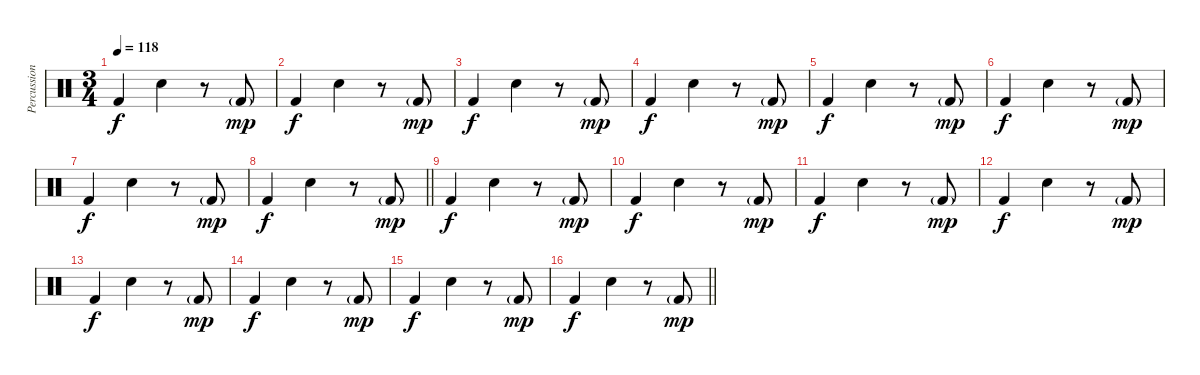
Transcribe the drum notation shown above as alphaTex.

\track ("Percussion" "Percussion") {instrument percussion}
\staff {score}
\articulation defaults
\ts (3 4)
\tempo 118
\clef neutral
\ks c "Kick (hit) 2".4{dy f} "Snare (hit) 2".4
r.8 "Kick (hit) 2"{g}.8{dy mp} |
"Kick (hit) 2".4{dy f} "Snare (hit) 2".4 r.8 "Kick (hit) 2"{g}.8{dy mp} |
"Kick (hit) 2".4{dy f} "Snare (hit) 2".4 r.8 "Kick (hit) 2"{g}.8{dy mp} |
"Kick (hit) 2".4{dy f} "Snare (hit) 2".4 r.8 "Kick (hit) 2"{g}.8{dy mp} |
"Kick (hit) 2".4{dy f} "Snare (hit) 2".4 r.8 "Kick (hit) 2"{g}.8{dy mp} |
"Kick (hit) 2".4{dy f} "Snare (hit) 2".4 r.8 "Kick (hit) 2"{g}.8{dy mp} |
"Kick (hit) 2".4{dy f} "Snare (hit) 2".4 r.8 "Kick (hit) 2"{g}.8{dy mp} |
\barLineRight lightlight "Kick (hit) 2".4{dy f} "Snare (hit) 2".4
r.8 "Kick (hit) 2"{g}.8{dy mp} |
"Kick (hit) 2".4{dy f} "Snare (hit) 2".4 r.8 "Kick (hit) 2"{g}.8{dy mp} |
"Kick (hit) 2".4{dy f} "Snare (hit) 2".4 r.8 "Kick (hit) 2"{g}.8{dy mp} |
"Kick (hit) 2".4{dy f} "Snare (hit) 2".4 r.8 "Kick (hit) 2"{g}.8{dy mp} |
"Kick (hit) 2".4{dy f} "Snare (hit) 2".4 r.8 "Kick (hit) 2"{g}.8{dy mp} |
"Kick (hit) 2".4{dy f} "Snare (hit) 2".4 r.8 "Kick (hit) 2"{g}.8{dy mp} |
"Kick (hit) 2".4{dy f} "Snare (hit) 2".4 r.8 "Kick (hit) 2"{g}.8{dy mp} |
"Kick (hit) 2".4{dy f} "Snare (hit) 2".4 r.8 "Kick (hit) 2"{g}.8{dy mp} |
\barLineRight lightlight "Kick (hit) 2".4{dy f} "Snare (hit) 2".4
r.8 "Kick (hit) 2"{g}.8{dy mp}
